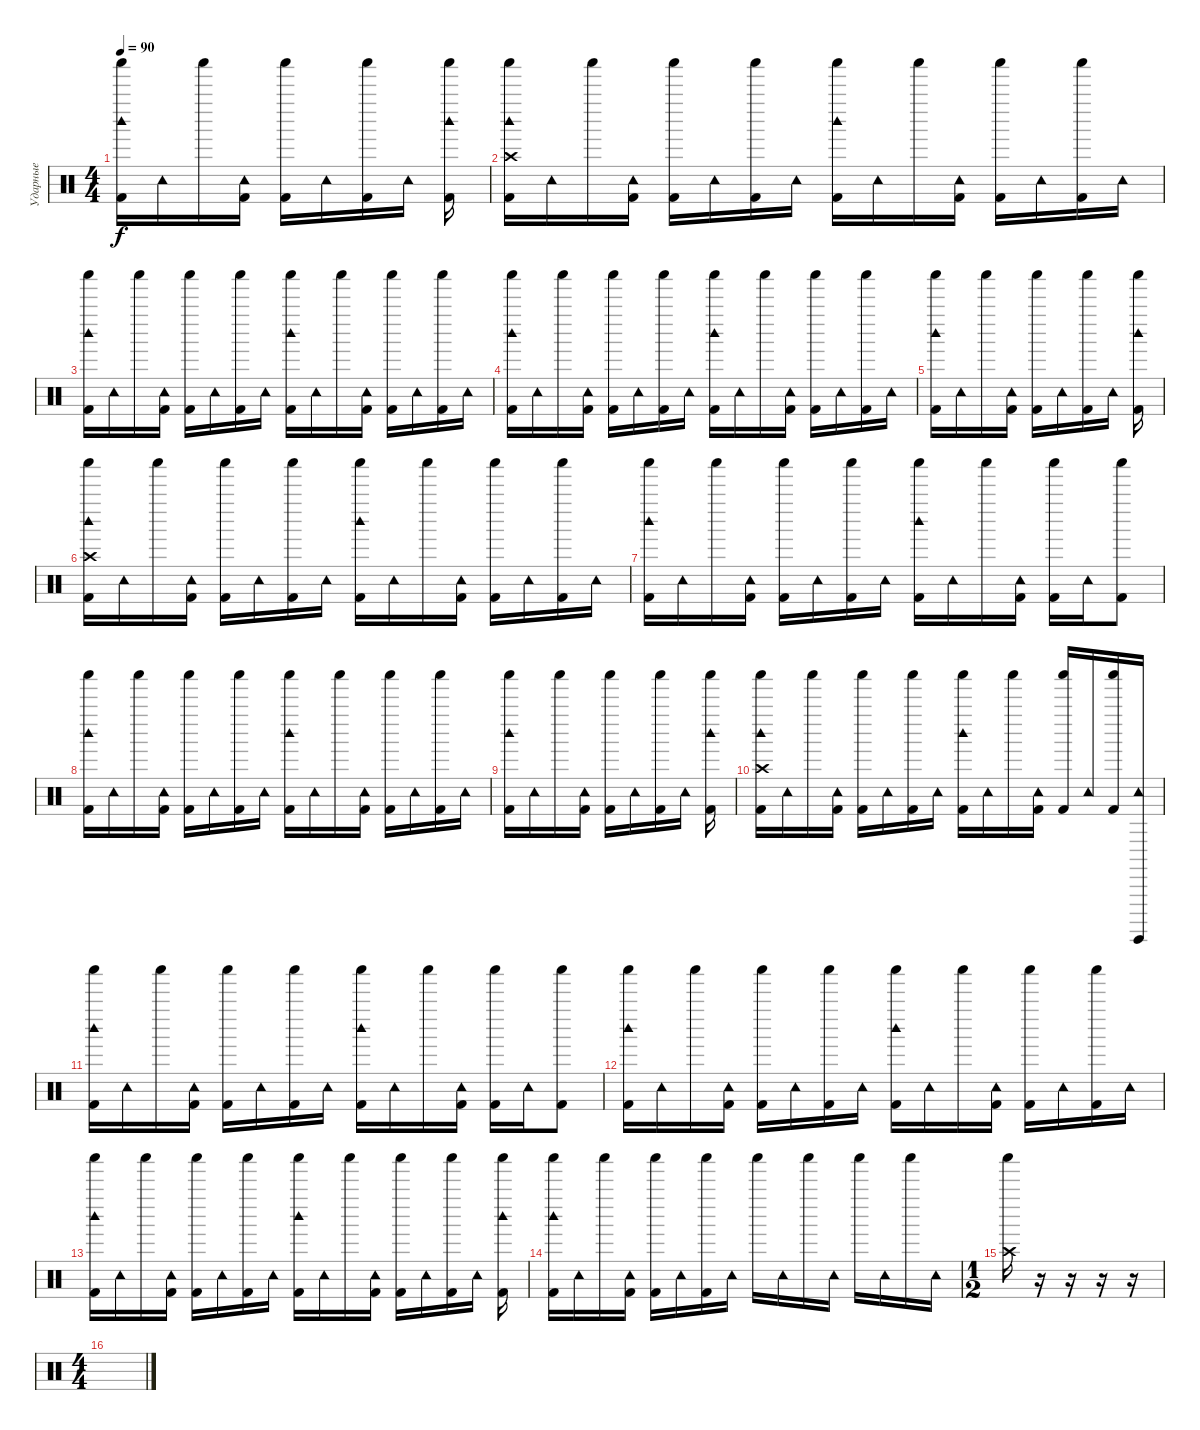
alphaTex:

\track ("Ударные" "Ударные") {instrument percussion}
\staff {score}
\articulation defaults
\ts (4 4)
\tempo 90
\clef neutral
\ks c
("Shaker (hit)" "Kick (hit) 2" "Woodblock high (hit)").16{dy f} "Tambourine (hit)".16 "Shaker (hit)".16 ("Tambourine (hit)" "Kick (hit) 2").16 ("Shaker (hit)" "Kick (hit) 2").16 "Tambourine (hit)".16 ("Shaker (hit)" "Kick (hit) 2").16 "Tambourine (hit)".16 ("Shaker (hit)" "Kick (hit) 2" "Woodblock high (hit)").16 |
("Shaker (hit)" "Kick (hit) 2" "Woodblock high (hit)" "Crash high (hit)").16 "Tambourine (hit)".16 "Shaker (hit)".16 ("Tambourine (hit)" "Kick (hit) 2").16 ("Shaker (hit)" "Kick (hit) 2").16 "Tambourine (hit)".16 ("Shaker (hit)" "Kick (hit) 2").16 "Tambourine (hit)".16 ("Shaker (hit)" "Kick (hit) 2" "Woodblock high (hit)").16 "Tambourine (hit)".16 "Shaker (hit)".16 ("Tambourine (hit)" "Kick (hit) 2").16 ("Shaker (hit)" "Kick (hit) 2").16 "Tambourine (hit)".16 ("Shaker (hit)" "Kick (hit) 2").16 "Tambourine (hit)".16 |
("Shaker (hit)" "Kick (hit) 2" "Woodblock high (hit)").16 "Tambourine (hit)".16 "Shaker (hit)".16 ("Tambourine (hit)" "Kick (hit) 2").16 ("Shaker (hit)" "Kick (hit) 2").16 "Tambourine (hit)".16 ("Shaker (hit)" "Kick (hit) 2").16 "Tambourine (hit)".16 ("Shaker (hit)" "Kick (hit) 2" "Woodblock high (hit)").16 "Tambourine (hit)".16 "Shaker (hit)".16 ("Tambourine (hit)" "Kick (hit) 2").16 ("Shaker (hit)" "Kick (hit) 2").16 "Tambourine (hit)".16 ("Shaker (hit)" "Kick (hit) 2").16 "Tambourine (hit)".16 |
("Shaker (hit)" "Kick (hit) 2" "Woodblock high (hit)").16 "Tambourine (hit)".16 "Shaker (hit)".16 ("Tambourine (hit)" "Kick (hit) 2").16 ("Shaker (hit)" "Kick (hit) 2").16 "Tambourine (hit)".16 ("Shaker (hit)" "Kick (hit) 2").16 "Tambourine (hit)".16 ("Shaker (hit)" "Kick (hit) 2" "Woodblock high (hit)").16 "Tambourine (hit)".16 "Shaker (hit)".16 ("Tambourine (hit)" "Kick (hit) 2").16 ("Shaker (hit)" "Kick (hit) 2").16 "Tambourine (hit)".16 ("Shaker (hit)" "Kick (hit) 2").16 "Tambourine (hit)".16 |
("Shaker (hit)" "Kick (hit) 2" "Woodblock high (hit)").16 "Tambourine (hit)".16 "Shaker (hit)".16 ("Tambourine (hit)" "Kick (hit) 2").16 ("Shaker (hit)" "Kick (hit) 2").16 "Tambourine (hit)".16 ("Shaker (hit)" "Kick (hit) 2").16 "Tambourine (hit)".16 ("Shaker (hit)" "Kick (hit) 2" "Woodblock high (hit)").16 |
("Shaker (hit)" "Kick (hit) 2" "Woodblock high (hit)" "Crash high (hit)").16 "Tambourine (hit)".16 "Shaker (hit)".16 ("Tambourine (hit)" "Kick (hit) 2").16 ("Shaker (hit)" "Kick (hit) 2").16 "Tambourine (hit)".16 ("Shaker (hit)" "Kick (hit) 2").16 "Tambourine (hit)".16 ("Shaker (hit)" "Kick (hit) 2" "Woodblock high (hit)").16 "Tambourine (hit)".16 "Shaker (hit)".16 ("Tambourine (hit)" "Kick (hit) 2").16 ("Shaker (hit)" "Kick (hit) 2").16 "Tambourine (hit)".16 ("Shaker (hit)" "Kick (hit) 2").16 "Tambourine (hit)".16 |
("Shaker (hit)" "Kick (hit) 2" "Woodblock high (hit)").16 "Tambourine (hit)".16 "Shaker (hit)".16 ("Tambourine (hit)" "Kick (hit) 2").16 ("Shaker (hit)" "Kick (hit) 2").16 "Tambourine (hit)".16 ("Shaker (hit)" "Kick (hit) 2").16 "Tambourine (hit)".16 ("Shaker (hit)" "Kick (hit) 2" "Woodblock high (hit)").16 "Tambourine (hit)".16 "Shaker (hit)".16 ("Tambourine (hit)" "Kick (hit) 2").16 ("Shaker (hit)" "Kick (hit) 2").16 "Tambourine (hit)".16 ("Shaker (hit)" "Kick (hit) 2").8 |
("Shaker (hit)" "Kick (hit) 2" "Woodblock high (hit)").16 "Tambourine (hit)".16 "Shaker (hit)".16 ("Tambourine (hit)" "Kick (hit) 2").16 ("Shaker (hit)" "Kick (hit) 2").16 "Tambourine (hit)".16 ("Shaker (hit)" "Kick (hit) 2").16 "Tambourine (hit)".16 ("Shaker (hit)" "Kick (hit) 2" "Woodblock high (hit)").16 "Tambourine (hit)".16 "Shaker (hit)".16 ("Tambourine (hit)" "Kick (hit) 2").16 ("Shaker (hit)" "Kick (hit) 2").16 "Tambourine (hit)".16 ("Shaker (hit)" "Kick (hit) 2").16 "Tambourine (hit)".16 |
("Shaker (hit)" "Kick (hit) 2" "Woodblock high (hit)").16 "Tambourine (hit)".16 "Shaker (hit)".16 ("Tambourine (hit)" "Kick (hit) 2").16 ("Shaker (hit)" "Kick (hit) 2").16 "Tambourine (hit)".16 ("Shaker (hit)" "Kick (hit) 2").16 "Tambourine (hit)".16 ("Shaker (hit)" "Kick (hit) 2" "Woodblock high (hit)").16 |
("Shaker (hit)" "Kick (hit) 2" "Crash high (hit)" "Woodblock high (hit)").16 "Tambourine (hit)".16 "Shaker (hit)".16 ("Tambourine (hit)" "Kick (hit) 2").16 ("Shaker (hit)" "Kick (hit) 2").16 "Tambourine (hit)".16 ("Shaker (hit)" "Kick (hit) 2").16 "Tambourine (hit)".16 ("Shaker (hit)" "Kick (hit) 2" "Woodblock high (hit)").16 "Tambourine (hit)".16 "Shaker (hit)".16 ("Tambourine (hit)" "Kick (hit) 2").16 ("Shaker (hit)" "Kick (hit) 2").16 "Tambourine (hit)".16 ("Shaker (hit)" "Kick (hit) 2").16 ("Tambourine (hit)" "Surdo (hit)").16 |
("Shaker (hit)" "Kick (hit) 2" "Woodblock high (hit)").16 "Tambourine (hit)".16 "Shaker (hit)".16 ("Tambourine (hit)" "Kick (hit) 2").16 ("Shaker (hit)" "Kick (hit) 2").16 "Tambourine (hit)".16 ("Shaker (hit)" "Kick (hit) 2").16 "Tambourine (hit)".16 ("Shaker (hit)" "Kick (hit) 2" "Woodblock high (hit)").16 "Tambourine (hit)".16 "Shaker (hit)".16 ("Tambourine (hit)" "Kick (hit) 2").16 ("Shaker (hit)" "Kick (hit) 2").16 "Tambourine (hit)".16 ("Shaker (hit)" "Kick (hit) 2").8 |
("Shaker (hit)" "Kick (hit) 2" "Woodblock high (hit)").16 "Tambourine (hit)".16 "Shaker (hit)".16 ("Tambourine (hit)" "Kick (hit) 2").16 ("Shaker (hit)" "Kick (hit) 2").16 "Tambourine (hit)".16 ("Shaker (hit)" "Kick (hit) 2").16 "Tambourine (hit)".16 ("Shaker (hit)" "Kick (hit) 2" "Woodblock high (hit)").16 "Tambourine (hit)".16 "Shaker (hit)".16 ("Tambourine (hit)" "Kick (hit) 2").16 ("Shaker (hit)" "Kick (hit) 2").16 "Tambourine (hit)".16 ("Shaker (hit)" "Kick (hit) 2").16 "Tambourine (hit)".16 |
("Shaker (hit)" "Kick (hit) 2" "Woodblock high (hit)").16 "Tambourine (hit)".16 "Shaker (hit)".16 ("Tambourine (hit)" "Kick (hit) 2").16 ("Shaker (hit)" "Kick (hit) 2").16 "Tambourine (hit)".16 ("Shaker (hit)" "Kick (hit) 2").16 "Tambourine (hit)".16 ("Shaker (hit)" "Kick (hit) 2" "Woodblock high (hit)").16 "Tambourine (hit)".16 "Shaker (hit)".16 ("Tambourine (hit)" "Kick (hit) 2").16 ("Shaker (hit)" "Kick (hit) 2").16 "Tambourine (hit)".16 ("Shaker (hit)" "Kick (hit) 2").16 "Tambourine (hit)".16 ("Shaker (hit)" "Kick (hit) 2" "Woodblock high (hit)").16 |
("Shaker (hit)" "Kick (hit) 2" "Woodblock high (hit)").16 "Tambourine (hit)".16 "Shaker (hit)".16 ("Tambourine (hit)" "Kick (hit) 2").16 ("Shaker (hit)" "Kick (hit) 2").16 "Tambourine (hit)".16 ("Shaker (hit)" "Kick (hit) 2").16 "Tambourine (hit)".16 "Shaker (hit)".16 "Tambourine (hit)".16 "Shaker (hit)".16 "Tambourine (hit)".16 "Shaker (hit)".16 "Tambourine (hit)".16 "Shaker (hit)".16 "Tambourine (hit)".16 |
\ts (1 2)
("Shaker (hit)" "Crash high (hit)").16 r.16 r.16 r.16 r.16 |
\ts (4 4)
